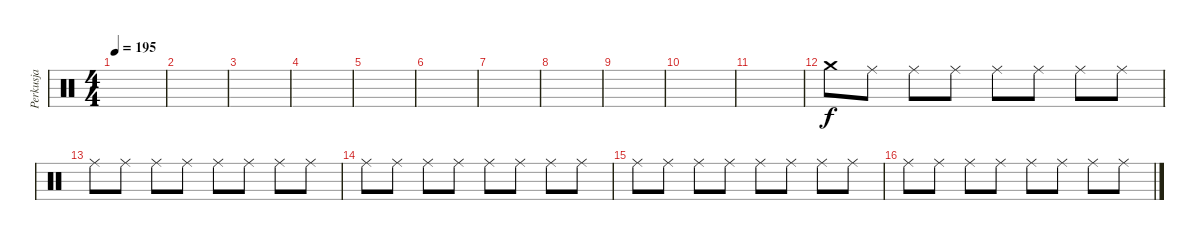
\track ("Perkusja" "Perkusja") {instrument percussion}
\staff {score}
\articulation defaults
\ts (4 4)
\tempo 195
\clef neutral
\ks c
|
|
|
|
|
|
|
|
|
|
|
"Crash medium (hit)".8 "Ride (middle)".8 "Ride (middle)".8 "Ride (middle)".8 "Ride (middle)".8 "Ride (middle)".8 "Ride (middle)".8 "Ride (middle)".8 |
"Ride (middle)".8 "Ride (middle)".8 "Ride (middle)".8 "Ride (middle)".8 "Ride (middle)".8 "Ride (middle)".8 "Ride (middle)".8 "Ride (middle)".8 |
"Ride (middle)".8 "Ride (middle)".8 "Ride (middle)".8 "Ride (middle)".8 "Ride (middle)".8 "Ride (middle)".8 "Ride (middle)".8 "Ride (middle)".8 |
"Ride (middle)".8 "Ride (middle)".8 "Ride (middle)".8 "Ride (middle)".8 "Ride (middle)".8 "Ride (middle)".8 "Ride (middle)".8 "Ride (middle)".8 |
"Ride (middle)".8 "Ride (middle)".8 "Ride (middle)".8 "Ride (middle)".8 "Ride (middle)".8 "Ride (middle)".8 "Ride (middle)".8 "Ride (middle)".8
